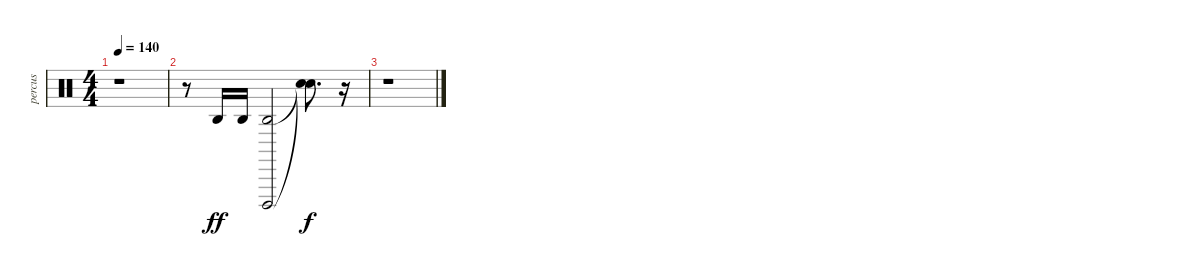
\track ("percus" "percus") {instrument percussion}
\staff {score}
\articulation defaults
\ts (4 4)
\tempo 140
\clef neutral
\ks c
r.1{dy f} |
r.8 "Agogo high (hit)".16{dy ff} "Agogo high (hit)".16 ("Agogo high (hit)" "Cuica (open)").2 ("Snare (hit)"{t} "Snare (hit)"{t}).8{d dy f} r.16 |
r.1
